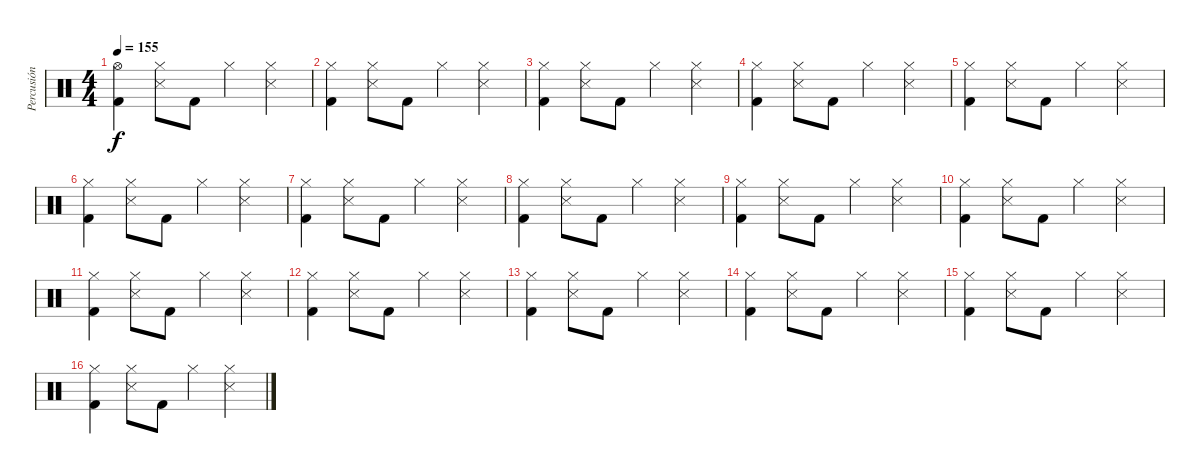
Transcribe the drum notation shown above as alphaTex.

\track ("Percusión" "Percusión") {instrument percussion}
\staff {score}
\articulation defaults
\ts (4 4)
\tempo 155
\clef neutral
\ks c
("Hi-Hat (open)" "Kick (hit) 2").4{dy f} ("Hi-Hat (closed)" "Snare (side stick) 3").8 "Kick (hit) 2".8 "Hi-Hat (closed)".4 ("Hi-Hat (closed)" "Snare (side stick) 3").4 |
("Hi-Hat (closed)" "Kick (hit) 2").4 ("Hi-Hat (closed)" "Snare (side stick) 3").8 "Kick (hit) 2".8 "Hi-Hat (closed)".4 ("Hi-Hat (closed)" "Snare (side stick) 3").4 |
("Hi-Hat (closed)" "Kick (hit) 2").4 ("Hi-Hat (closed)" "Snare (side stick) 3").8 "Kick (hit) 2".8 "Hi-Hat (closed)".4 ("Hi-Hat (closed)" "Snare (side stick) 3").4 |
("Hi-Hat (closed)" "Kick (hit) 2").4 ("Hi-Hat (closed)" "Snare (side stick) 3").8 "Kick (hit) 2".8 "Hi-Hat (closed)".4 ("Hi-Hat (closed)" "Snare (side stick) 3").4 |
("Hi-Hat (closed)" "Kick (hit) 2").4 ("Hi-Hat (closed)" "Snare (side stick) 3").8 "Kick (hit) 2".8 "Hi-Hat (closed)".4 ("Hi-Hat (closed)" "Snare (side stick) 3").4 |
("Hi-Hat (closed)" "Kick (hit) 2").4 ("Hi-Hat (closed)" "Snare (side stick) 3").8 "Kick (hit) 2".8 "Hi-Hat (closed)".4 ("Hi-Hat (closed)" "Snare (side stick) 3").4 |
("Hi-Hat (closed)" "Kick (hit) 2").4 ("Hi-Hat (closed)" "Snare (side stick) 3").8 "Kick (hit) 2".8 "Hi-Hat (closed)".4 ("Hi-Hat (closed)" "Snare (side stick) 3").4 |
("Hi-Hat (closed)" "Kick (hit) 2").4 ("Hi-Hat (closed)" "Snare (side stick) 3").8 "Kick (hit) 2".8 "Hi-Hat (closed)".4 ("Hi-Hat (closed)" "Snare (side stick) 3").4 |
("Hi-Hat (closed)" "Kick (hit) 2").4 ("Hi-Hat (closed)" "Snare (side stick) 3").8 "Kick (hit) 2".8 "Hi-Hat (closed)".4 ("Hi-Hat (closed)" "Snare (side stick) 3").4 |
("Hi-Hat (closed)" "Kick (hit) 2").4 ("Hi-Hat (closed)" "Snare (side stick) 3").8 "Kick (hit) 2".8 "Hi-Hat (closed)".4 ("Hi-Hat (closed)" "Snare (side stick) 3").4 |
("Hi-Hat (closed)" "Kick (hit) 2").4 ("Hi-Hat (closed)" "Snare (side stick) 3").8 "Kick (hit) 2".8 "Hi-Hat (closed)".4 ("Hi-Hat (closed)" "Snare (side stick) 3").4 |
("Hi-Hat (closed)" "Kick (hit) 2").4 ("Hi-Hat (closed)" "Snare (side stick) 3").8 "Kick (hit) 2".8 "Hi-Hat (closed)".4 ("Hi-Hat (closed)" "Snare (side stick) 3").4 |
("Hi-Hat (closed)" "Kick (hit) 2").4 ("Hi-Hat (closed)" "Snare (side stick) 3").8 "Kick (hit) 2".8 "Hi-Hat (closed)".4 ("Hi-Hat (closed)" "Snare (side stick) 3").4 |
("Hi-Hat (closed)" "Kick (hit) 2").4 ("Hi-Hat (closed)" "Snare (side stick) 3").8 "Kick (hit) 2".8 "Hi-Hat (closed)".4 ("Hi-Hat (closed)" "Snare (side stick) 3").4 |
("Hi-Hat (closed)" "Kick (hit) 2").4 ("Hi-Hat (closed)" "Snare (side stick) 3").8 "Kick (hit) 2".8 "Hi-Hat (closed)".4 ("Hi-Hat (closed)" "Snare (side stick) 3").4 |
("Hi-Hat (closed)" "Kick (hit) 2").4 ("Hi-Hat (closed)" "Snare (side stick) 3").8 "Kick (hit) 2".8 "Hi-Hat (closed)".4 ("Hi-Hat (closed)" "Snare (side stick) 3").4
